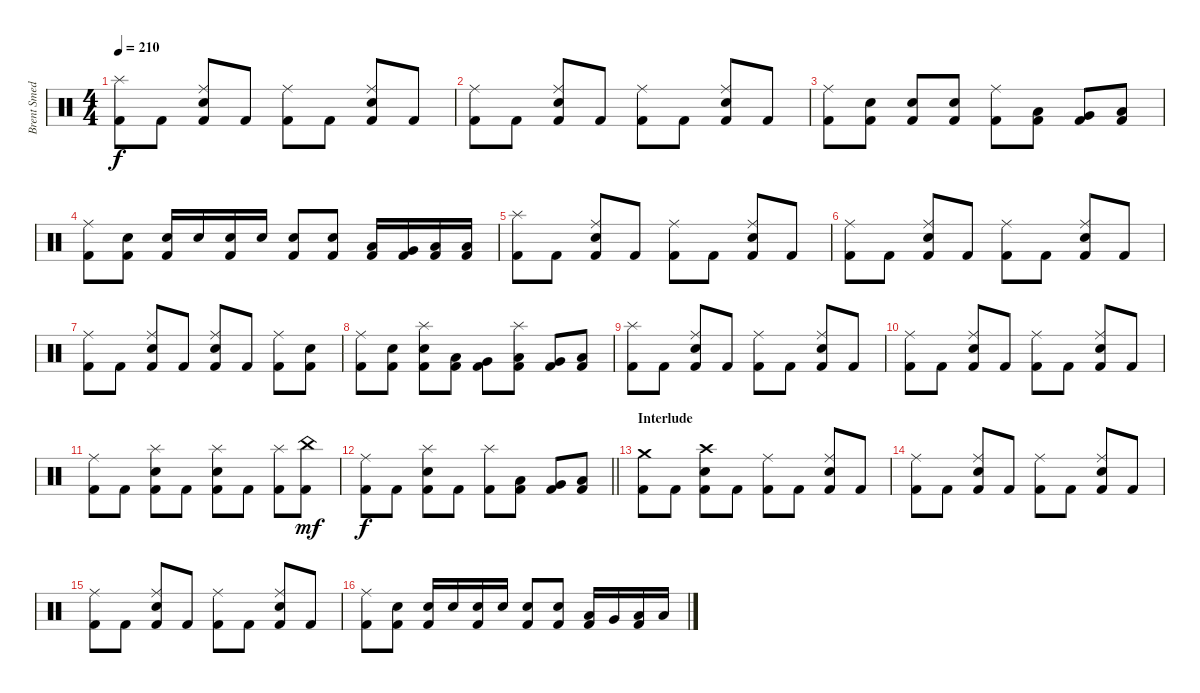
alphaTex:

\track ("Brent Smedley" "Brent Smed") {instrument percussion}
\staff {score}
\articulation defaults
\ts (4 4)
\tempo 210
\clef neutral
\ks c
("Splash (hit)" "Kick (hit) 2").8{dy f} "Kick (hit) 2".8 ("Ride (middle)" "Electric Snare (hit)" "Kick (hit) 2").8 "Kick (hit) 2".8 ("Ride (middle)" "Kick (hit) 2").8 "Kick (hit) 2".8 ("Ride (middle)" "Electric Snare (hit)" "Kick (hit) 2").8 "Kick (hit) 2".8 |
("Ride (middle)" "Kick (hit) 2").8 "Kick (hit) 2".8 ("Ride (middle)" "Electric Snare (hit)" "Kick (hit) 2").8 "Kick (hit) 2".8 ("Ride (middle)" "Kick (hit) 2").8 "Kick (hit) 2".8 ("Ride (middle)" "Electric Snare (hit)" "Kick (hit) 2").8 "Kick (hit) 2".8 |
("Ride (middle)" "Kick (hit) 2").8 ("Electric Snare (hit)" "Kick (hit) 2").8 ("Electric Snare (hit)" "Kick (hit) 2").8 ("Electric Snare (hit)" "Kick (hit) 2").8 ("Ride (middle)" "Kick (hit) 2").8 ("Low Tom (hit)" "Kick (hit) 2").8 ("Very Low Tom (hit)" "Kick (hit) 2").8 ("Low Floor Tom (hit)" "Kick (hit) 2").8 |
("Ride (middle)" "Kick (hit) 2").8 ("Electric Snare (hit)" "Kick (hit) 2").8 ("Electric Snare (hit)" "Kick (hit) 2").16 "Electric Snare (hit)".16 ("Electric Snare (hit)" "Kick (hit) 2").16 "Electric Snare (hit)".16 ("Electric Snare (hit)" "Kick (hit) 2").8 ("Electric Snare (hit)" "Kick (hit) 2").8 ("Low Tom (hit)" "Kick (hit) 2").16 ("Very Low Tom (hit)" "Kick (hit) 2").16 ("Low Floor Tom (hit)" "Kick (hit) 2").16 ("Low Floor Tom (hit)" "Kick (hit) 2").16 |
("Splash (hit)" "Kick (hit) 2").8 "Kick (hit) 2".8 ("Ride (middle)" "Electric Snare (hit)" "Kick (hit) 2").8 "Kick (hit) 2".8 ("Ride (middle)" "Kick (hit) 2").8 "Kick (hit) 2".8 ("Ride (middle)" "Electric Snare (hit)" "Kick (hit) 2").8 "Kick (hit) 2".8 |
("Ride (middle)" "Kick (hit) 2").8 "Kick (hit) 2".8 ("Ride (middle)" "Electric Snare (hit)" "Kick (hit) 2").8 "Kick (hit) 2".8 ("Ride (middle)" "Kick (hit) 2").8 "Kick (hit) 2".8 ("Ride (middle)" "Electric Snare (hit)" "Kick (hit) 2").8 "Kick (hit) 2".8 |
("Ride (middle)" "Kick (hit) 2").8 "Kick (hit) 2".8 ("Ride (middle)" "Electric Snare (hit)" "Kick (hit) 2").8 "Kick (hit) 2".8 ("Ride (middle)" "Electric Snare (hit)" "Kick (hit) 2").8 "Kick (hit) 2".8 ("Ride (middle)" "Kick (hit) 2").8 ("Electric Snare (hit)" "Kick (hit) 2").8 |
("Ride (middle)" "Kick (hit) 2").8 ("Electric Snare (hit)" "Kick (hit) 2").8 ("Splash (hit)" "Electric Snare (hit)" "Kick (hit) 2").8 ("Low Tom (hit)" "Kick (hit) 2").8 ("Very Low Tom (hit)" "Kick (hit) 2").8 ("Splash (hit)" "Low Tom (hit)" "Kick (hit) 2").8 ("Very Low Tom (hit)" "Kick (hit) 2").8 ("Low Floor Tom (hit)" "Kick (hit) 2").8 |
("Splash (hit)" "Kick (hit) 2").8 "Kick (hit) 2".8 ("Ride (middle)" "Electric Snare (hit)" "Kick (hit) 2").8 "Kick (hit) 2".8 ("Ride (middle)" "Kick (hit) 2").8 "Kick (hit) 2".8 ("Ride (middle)" "Electric Snare (hit)" "Kick (hit) 2").8 "Kick (hit) 2".8 |
("Ride (middle)" "Kick (hit) 2").8 "Kick (hit) 2".8 ("Ride (middle)" "Electric Snare (hit)" "Kick (hit) 2").8 "Kick (hit) 2".8 ("Ride (middle)" "Kick (hit) 2").8 "Kick (hit) 2".8 ("Ride (middle)" "Electric Snare (hit)" "Kick (hit) 2").8 "Kick (hit) 2".8 |
("Ride (middle)" "Kick (hit) 2").8 "Kick (hit) 2".8 ("Splash (hit)" "Electric Snare (hit)" "Kick (hit) 2").8 "Kick (hit) 2".8 ("Splash (hit)" "Electric Snare (hit)" "Kick (hit) 2").8 "Kick (hit) 2".8 ("Splash (hit)" "Kick (hit) 2").8 ("China (hit)" "Kick (hit) 2").8{dy mf} |
\barLineRight lightlight
("Ride (middle)" "Kick (hit) 2").8{dy f} "Kick (hit) 2".8 ("Splash (hit)" "Electric Snare (hit)" "Kick (hit) 2").8 "Kick (hit) 2".8 ("Splash (hit)" "Kick (hit) 2").8 ("Low Tom (hit)" "Kick (hit) 2").8 ("Very Low Tom (hit)" "Kick (hit) 2").8 ("Low Floor Tom (hit)" "Kick (hit) 2").8 |
\section ("" "Interlude")
("Crash medium (hit)" "Kick (hit) 2").8 "Kick (hit) 2".8 ("Crash high (hit)" "Electric Snare (hit)" "Kick (hit) 2").8 "Kick (hit) 2".8 ("Ride (middle)" "Kick (hit) 2").8 "Kick (hit) 2".8 ("Ride (middle)" "Electric Snare (hit)" "Kick (hit) 2").8 "Kick (hit) 2".8 |
("Ride (middle)" "Kick (hit) 2").8 "Kick (hit) 2".8 ("Ride (middle)" "Electric Snare (hit)" "Kick (hit) 2").8 "Kick (hit) 2".8 ("Ride (middle)" "Kick (hit) 2").8 "Kick (hit) 2".8 ("Ride (middle)" "Electric Snare (hit)" "Kick (hit) 2").8 "Kick (hit) 2".8 |
("Ride (middle)" "Kick (hit) 2").8 "Kick (hit) 2".8 ("Ride (middle)" "Electric Snare (hit)" "Kick (hit) 2").8 "Kick (hit) 2".8 ("Ride (middle)" "Kick (hit) 2").8 "Kick (hit) 2".8 ("Ride (middle)" "Electric Snare (hit)" "Kick (hit) 2").8 "Kick (hit) 2".8 |
("Ride (middle)" "Kick (hit) 2").8 ("Electric Snare (hit)" "Kick (hit) 2").8 ("Electric Snare (hit)" "Kick (hit) 2").16 "Electric Snare (hit)".16 ("Electric Snare (hit)" "Kick (hit) 2").16 "Electric Snare (hit)".16 ("Electric Snare (hit)" "Kick (hit) 2").8 ("Electric Snare (hit)" "Kick (hit) 2").8 ("Low Tom (hit)" "Kick (hit) 2").16 "Very Low Tom (hit)".16 ("Low Floor Tom (hit)" "Kick (hit) 2").16 "Low Floor Tom (hit)".16
